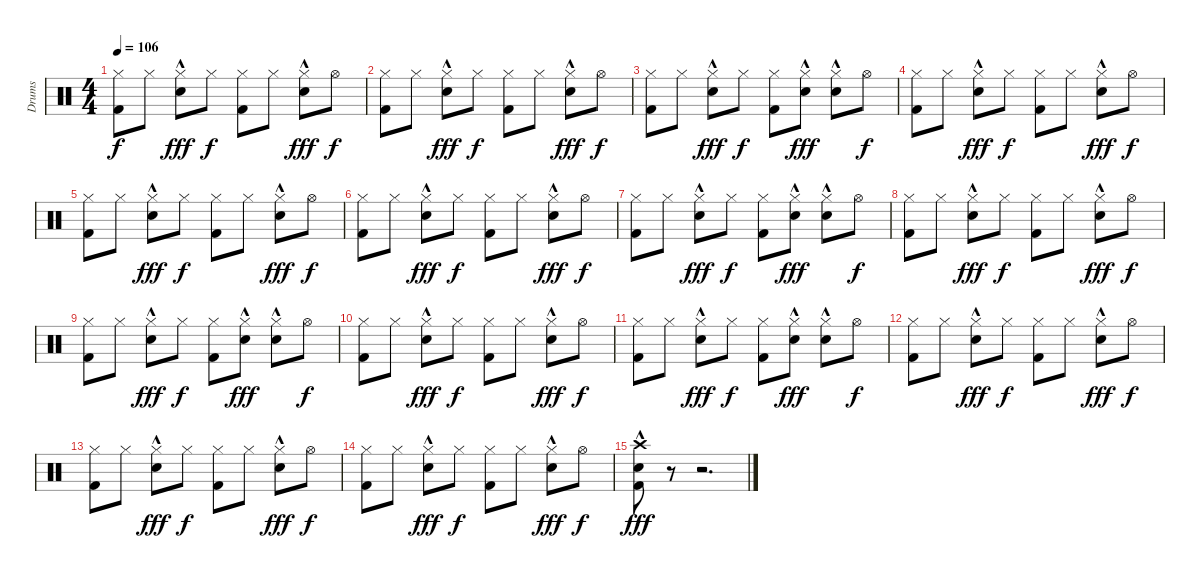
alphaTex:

\track ("Drums" "Drums") {instrument percussion}
\staff {score}
\articulation defaults
\ts (4 4)
\tempo 106
\clef neutral
\ks c
("Hi-Hat (closed)" "Kick (hit) 2").8{dy f} "Hi-Hat (closed)".8 ("Hi-Hat (closed)" "Hand Clap (hit)"{hac}).8{dy fff} "Hi-Hat (closed)".8{dy f} ("Hi-Hat (closed)" "Kick (hit) 2").8 "Hi-Hat (closed)".8 ("Hi-Hat (closed)" "Hand Clap (hit)"{hac}).8{dy fff} "Hi-Hat (open)".8{dy f} |
("Hi-Hat (closed)" "Kick (hit) 2").8 "Hi-Hat (closed)".8 ("Hi-Hat (closed)" "Hand Clap (hit)"{hac}).8{dy fff} "Hi-Hat (closed)".8{dy f} ("Hi-Hat (closed)" "Kick (hit) 2").8 "Hi-Hat (closed)".8 ("Hi-Hat (closed)" "Hand Clap (hit)"{hac}).8{dy fff} "Hi-Hat (open)".8{dy f} |
("Hi-Hat (closed)" "Kick (hit) 2").8 "Hi-Hat (closed)".8 ("Hi-Hat (closed)" "Hand Clap (hit)"{hac}).8{dy fff} "Hi-Hat (closed)".8{dy f} ("Hi-Hat (closed)" "Kick (hit) 2").8 ("Hi-Hat (closed)" "Hand Clap (hit)"{hac}).8{dy fff} ("Hi-Hat (closed)" "Hand Clap (hit)"{hac}).8 "Hi-Hat (open)".8{dy f} |
("Hi-Hat (closed)" "Kick (hit) 2").8 "Hi-Hat (closed)".8 ("Hi-Hat (closed)" "Hand Clap (hit)"{hac}).8{dy fff} "Hi-Hat (closed)".8{dy f} ("Hi-Hat (closed)" "Kick (hit) 2").8 "Hi-Hat (closed)".8 ("Hi-Hat (closed)" "Hand Clap (hit)"{hac}).8{dy fff} "Hi-Hat (open)".8{dy f} |
("Hi-Hat (closed)" "Kick (hit) 2").8 "Hi-Hat (closed)".8 ("Hi-Hat (closed)" "Hand Clap (hit)"{hac}).8{dy fff} "Hi-Hat (closed)".8{dy f} ("Hi-Hat (closed)" "Kick (hit) 2").8 "Hi-Hat (closed)".8 ("Hi-Hat (closed)" "Hand Clap (hit)"{hac}).8{dy fff} "Hi-Hat (open)".8{dy f} |
("Hi-Hat (closed)" "Kick (hit) 2").8 "Hi-Hat (closed)".8 ("Hi-Hat (closed)" "Hand Clap (hit)"{hac}).8{dy fff} "Hi-Hat (closed)".8{dy f} ("Hi-Hat (closed)" "Kick (hit) 2").8 "Hi-Hat (closed)".8 ("Hi-Hat (closed)" "Hand Clap (hit)"{hac}).8{dy fff} "Hi-Hat (open)".8{dy f} |
("Hi-Hat (closed)" "Kick (hit) 2").8 "Hi-Hat (closed)".8 ("Hi-Hat (closed)" "Hand Clap (hit)"{hac}).8{dy fff} "Hi-Hat (closed)".8{dy f} ("Hi-Hat (closed)" "Kick (hit) 2").8 ("Hi-Hat (closed)" "Hand Clap (hit)"{hac}).8{dy fff} ("Hi-Hat (closed)" "Hand Clap (hit)"{hac}).8 "Hi-Hat (open)".8{dy f} |
("Hi-Hat (closed)" "Kick (hit) 2").8 "Hi-Hat (closed)".8 ("Hi-Hat (closed)" "Hand Clap (hit)"{hac}).8{dy fff} "Hi-Hat (closed)".8{dy f} ("Hi-Hat (closed)" "Kick (hit) 2").8 "Hi-Hat (closed)".8 ("Hi-Hat (closed)" "Hand Clap (hit)"{hac}).8{dy fff} "Hi-Hat (open)".8{dy f} |
("Hi-Hat (closed)" "Kick (hit) 2").8 "Hi-Hat (closed)".8 ("Hi-Hat (closed)" "Hand Clap (hit)"{hac}).8{dy fff} "Hi-Hat (closed)".8{dy f} ("Hi-Hat (closed)" "Kick (hit) 2").8 ("Hi-Hat (closed)" "Hand Clap (hit)"{hac}).8{dy fff} ("Hi-Hat (closed)" "Hand Clap (hit)"{hac}).8 "Hi-Hat (open)".8{dy f} |
("Hi-Hat (closed)" "Kick (hit) 2").8 "Hi-Hat (closed)".8 ("Hi-Hat (closed)" "Hand Clap (hit)"{hac}).8{dy fff} "Hi-Hat (closed)".8{dy f} ("Hi-Hat (closed)" "Kick (hit) 2").8 "Hi-Hat (closed)".8 ("Hi-Hat (closed)" "Hand Clap (hit)"{hac}).8{dy fff} "Hi-Hat (open)".8{dy f} |
("Hi-Hat (closed)" "Kick (hit) 2").8 "Hi-Hat (closed)".8 ("Hi-Hat (closed)" "Hand Clap (hit)"{hac}).8{dy fff} "Hi-Hat (closed)".8{dy f} ("Hi-Hat (closed)" "Kick (hit) 2").8 ("Hi-Hat (closed)" "Hand Clap (hit)"{hac}).8{dy fff} ("Hi-Hat (closed)" "Hand Clap (hit)"{hac}).8 "Hi-Hat (open)".8{dy f} |
("Hi-Hat (closed)" "Kick (hit) 2").8 "Hi-Hat (closed)".8 ("Hi-Hat (closed)" "Snare (hit) 2"{hac}).8{dy fff} "Hi-Hat (closed)".8{dy f} ("Hi-Hat (closed)" "Kick (hit) 2").8 "Hi-Hat (closed)".8 ("Hi-Hat (closed)" "Snare (hit) 2"{hac}).8{dy fff} "Hi-Hat (open)".8{dy f} |
("Hi-Hat (closed)" "Kick (hit) 2").8 "Hi-Hat (closed)".8 ("Hi-Hat (closed)" "Snare (hit) 2"{hac}).8{dy fff} "Hi-Hat (closed)".8{dy f} ("Hi-Hat (closed)" "Kick (hit) 2").8 "Hi-Hat (closed)".8 ("Hi-Hat (closed)" "Snare (hit) 2"{hac}).8{dy fff} "Hi-Hat (open)".8{dy f} |
("Hi-Hat (closed)" "Kick (hit) 2").8 "Hi-Hat (closed)".8 ("Hi-Hat (closed)" "Snare (hit) 2"{hac}).8{dy fff} "Hi-Hat (closed)".8{dy f} ("Hi-Hat (closed)" "Kick (hit) 2").8 "Hi-Hat (closed)".8 ("Hi-Hat (closed)" "Snare (hit) 2"{hac}).8{dy fff} "Hi-Hat (open)".8{dy f} |
("Snare (hit) 2"{hac} "Crash high (hit)"{hac} "Kick (hit) 2"{hac}).8{dy fff} r.8 r.2{d}
